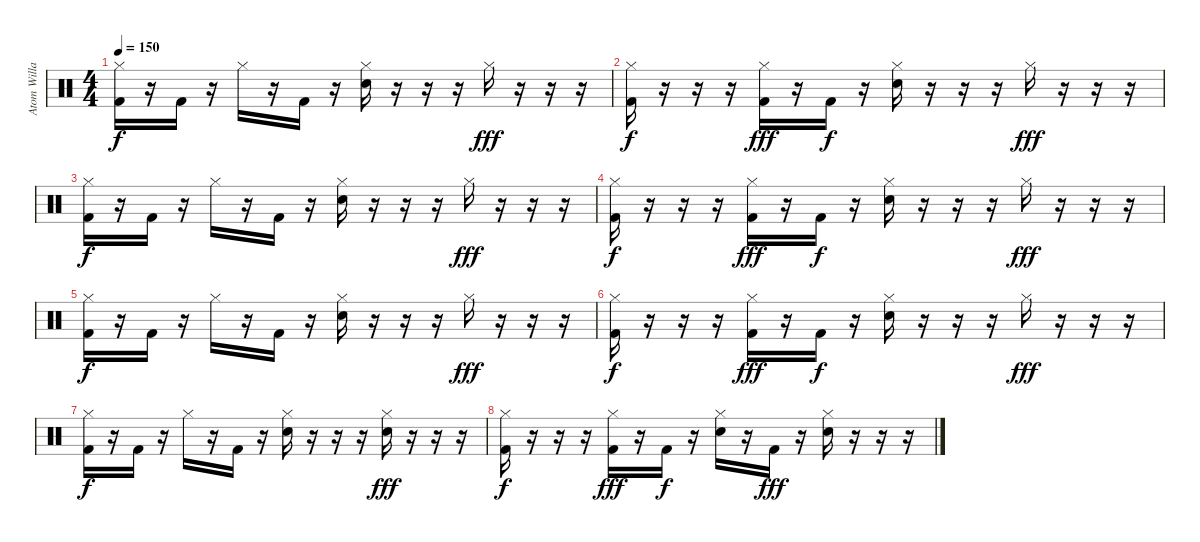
\track ("Atom Willard, drums" "Atom Willa") {instrument percussion}
\staff {score}
\articulation defaults
\ts (4 4)
\tempo 150
\clef neutral
\ks c
("Hi-Hat (closed)" "Kick (hit) 2").16{dy f} r.16 "Kick (hit) 2".16 r.16 "Hi-Hat (closed)".16 r.16 "Kick (hit) 2".16 r.16 ("Hi-Hat (closed)" "Electric Snare (hit)").16 r.16 r.16 r.16 "Hi-Hat (closed)".16{dy fff} r.16 r.16 r.16 |
("Hi-Hat (closed)" "Kick (hit) 2").16{dy f} r.16 r.16 r.16 ("Hi-Hat (closed)" "Kick (hit) 2").16{dy fff} r.16 "Kick (hit) 2".16{dy f} r.16 ("Hi-Hat (closed)" "Electric Snare (hit)").16 r.16 r.16 r.16 "Hi-Hat (closed)".16{dy fff} r.16 r.16 r.16 |
("Hi-Hat (closed)" "Kick (hit) 2").16{dy f} r.16 "Kick (hit) 2".16 r.16 "Hi-Hat (closed)".16 r.16 "Kick (hit) 2".16 r.16 ("Hi-Hat (closed)" "Electric Snare (hit)").16 r.16 r.16 r.16 "Hi-Hat (closed)".16{dy fff} r.16 r.16 r.16 |
("Hi-Hat (closed)" "Kick (hit) 2").16{dy f} r.16 r.16 r.16 ("Hi-Hat (closed)" "Kick (hit) 2").16{dy fff} r.16 "Kick (hit) 2".16{dy f} r.16 ("Hi-Hat (closed)" "Electric Snare (hit)").16 r.16 r.16 r.16 "Hi-Hat (closed)".16{dy fff} r.16 r.16 r.16 |
("Hi-Hat (closed)" "Kick (hit) 2").16{dy f} r.16 "Kick (hit) 2".16 r.16 "Hi-Hat (closed)".16 r.16 "Kick (hit) 2".16 r.16 ("Hi-Hat (closed)" "Electric Snare (hit)").16 r.16 r.16 r.16 "Hi-Hat (closed)".16{dy fff} r.16 r.16 r.16 |
("Hi-Hat (closed)" "Kick (hit) 2").16{dy f} r.16 r.16 r.16 ("Hi-Hat (closed)" "Kick (hit) 2").16{dy fff} r.16 "Kick (hit) 2".16{dy f} r.16 ("Hi-Hat (closed)" "Electric Snare (hit)").16 r.16 r.16 r.16 "Hi-Hat (closed)".16{dy fff} r.16 r.16 r.16 |
("Hi-Hat (closed)" "Kick (hit) 2").16{dy f} r.16 "Kick (hit) 2".16 r.16 "Hi-Hat (closed)".16 r.16 "Kick (hit) 2".16 r.16 ("Hi-Hat (closed)" "Electric Snare (hit)").16 r.16 r.16 r.16 ("Hi-Hat (closed)" "Electric Snare (hit)").16{dy fff} r.16 r.16 r.16 |
("Hi-Hat (closed)" "Kick (hit) 2").16{dy f} r.16 r.16 r.16 ("Hi-Hat (closed)" "Kick (hit) 2").16{dy fff} r.16 "Kick (hit) 2".16{dy f} r.16 ("Hi-Hat (closed)" "Electric Snare (hit)").16 r.16 "Kick (hit) 2".16{dy fff} r.16 ("Hi-Hat (closed)" "Electric Snare (hit)").16 r.16 r.16 r.16
